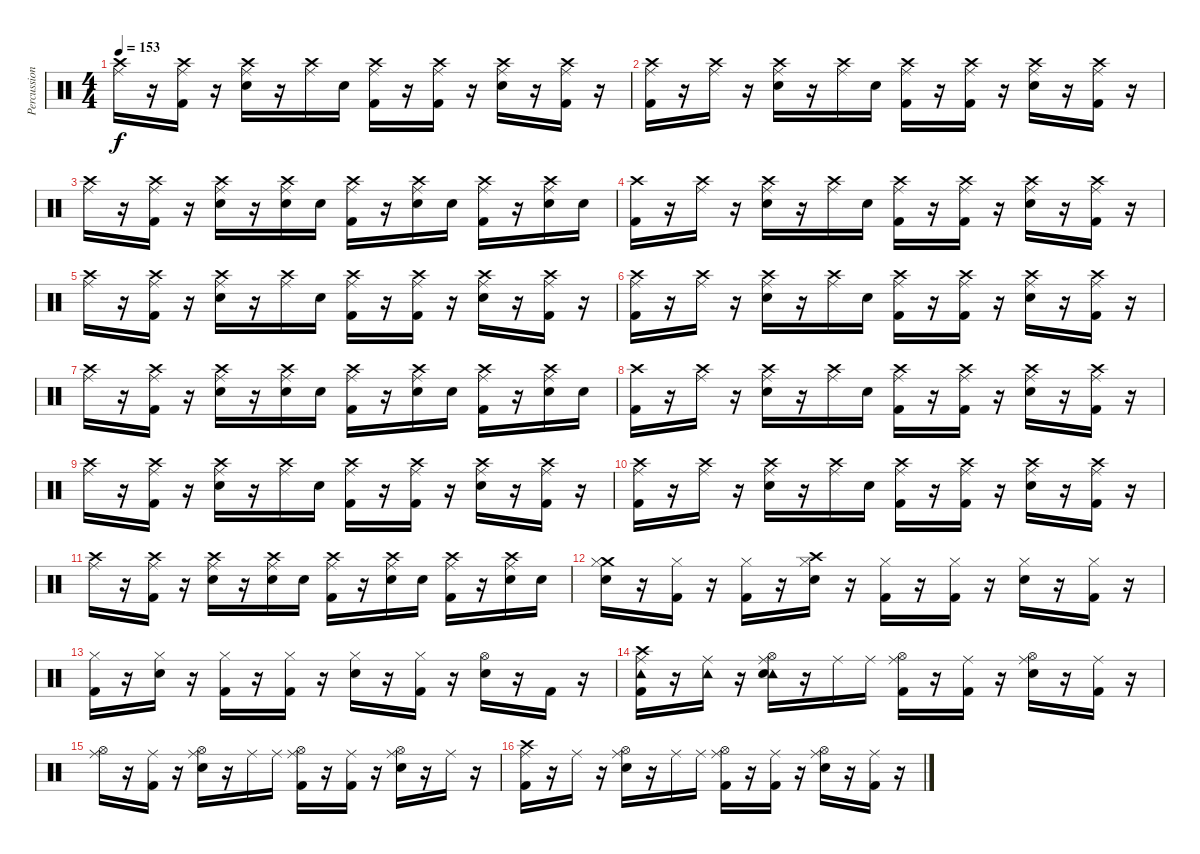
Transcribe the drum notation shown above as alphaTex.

\track ("Percussion" "Percussion") {instrument percussion}
\staff {score}
\articulation defaults
\ts (4 4)
\tempo 153
\clef neutral
\ks c
("Crash high (hit)" "Ride (middle)").16{dy f} r.16 ("Crash high (hit)" "Kick (hit) 2" "Ride (middle)").16 r.16 ("Crash high (hit)" "Electric Snare (hit)" "Ride (middle)").16 r.16 ("Crash high (hit)" "Ride (middle)").16 "Electric Snare (hit)".16 ("Kick (hit) 2" "Crash high (hit)" "Ride (middle)").16 r.16 ("Kick (hit) 2" "Crash high (hit)" "Ride (middle)").16 r.16 ("Electric Snare (hit)" "Crash high (hit)" "Ride (middle)").16 r.16 ("Crash high (hit)" "Kick (hit) 2" "Ride (middle)").16 r.16 |
("Kick (hit) 2" "Crash high (hit)" "Ride (middle)").16 r.16 ("Crash high (hit)" "Ride (middle)").16 r.16 ("Electric Snare (hit)" "Crash high (hit)" "Ride (middle)").16 r.16 ("Crash high (hit)" "Ride (middle)").16 "Electric Snare (hit)".16 ("Kick (hit) 2" "Crash high (hit)" "Ride (middle)").16 r.16 ("Kick (hit) 2" "Crash high (hit)" "Ride (middle)").16 r.16 ("Electric Snare (hit)" "Crash high (hit)" "Ride (middle)").16 r.16 ("Kick (hit) 2" "Crash high (hit)" "Ride (middle)").16 r.16 |
("Crash high (hit)" "Ride (middle)").16 r.16 ("Crash high (hit)" "Ride (middle)" "Kick (hit) 2").16 r.16 ("Crash high (hit)" "Ride (middle)" "Electric Snare (hit)").16 r.16 ("Crash high (hit)" "Electric Snare (hit)" "Ride (middle)").16 "Electric Snare (hit)".16 ("Crash high (hit)" "Kick (hit) 2" "Ride (middle)").16 r.16 ("Crash high (hit)" "Electric Snare (hit)" "Ride (middle)").16 "Electric Snare (hit)".16 ("Crash high (hit)" "Kick (hit) 2" "Ride (middle)").16 r.16 ("Crash high (hit)" "Electric Snare (hit)" "Ride (middle)").16 "Electric Snare (hit)".16 |
("Kick (hit) 2" "Crash high (hit)").16 r.16 ("Crash high (hit)" "Ride (middle)").16 r.16 ("Electric Snare (hit)" "Crash high (hit)" "Ride (middle)").16 r.16 ("Crash high (hit)" "Ride (middle)").16 "Electric Snare (hit)".16 ("Kick (hit) 2" "Crash high (hit)" "Ride (middle)").16 r.16 ("Kick (hit) 2" "Crash high (hit)" "Ride (middle)").16 r.16 ("Electric Snare (hit)" "Crash high (hit)" "Ride (middle)").16 r.16 ("Kick (hit) 2" "Crash high (hit)" "Ride (middle)").16 r.16 |
("Crash high (hit)" "Ride (middle)").16 r.16 ("Crash high (hit)" "Kick (hit) 2" "Ride (middle)").16 r.16 ("Crash high (hit)" "Electric Snare (hit)" "Ride (middle)").16 r.16 ("Crash high (hit)" "Ride (middle)").16 "Electric Snare (hit)".16 ("Kick (hit) 2" "Crash high (hit)" "Ride (middle)").16 r.16 ("Kick (hit) 2" "Crash high (hit)" "Ride (middle)").16 r.16 ("Electric Snare (hit)" "Crash high (hit)" "Ride (middle)").16 r.16 ("Crash high (hit)" "Kick (hit) 2" "Ride (middle)").16 r.16 |
("Kick (hit) 2" "Crash high (hit)" "Ride (middle)").16 r.16 ("Crash high (hit)" "Ride (middle)").16 r.16 ("Electric Snare (hit)" "Crash high (hit)" "Ride (middle)").16 r.16 ("Crash high (hit)" "Ride (middle)").16 "Electric Snare (hit)".16 ("Kick (hit) 2" "Crash high (hit)" "Ride (middle)").16 r.16 ("Kick (hit) 2" "Crash high (hit)" "Ride (middle)").16 r.16 ("Electric Snare (hit)" "Crash high (hit)" "Ride (middle)").16 r.16 ("Kick (hit) 2" "Crash high (hit)" "Ride (middle)").16 r.16 |
("Crash high (hit)" "Ride (middle)").16 r.16 ("Crash high (hit)" "Ride (middle)" "Kick (hit) 2").16 r.16 ("Crash high (hit)" "Ride (middle)" "Electric Snare (hit)").16 r.16 ("Crash high (hit)" "Electric Snare (hit)" "Ride (middle)").16 "Electric Snare (hit)".16 ("Crash high (hit)" "Kick (hit) 2" "Ride (middle)").16 r.16 ("Crash high (hit)" "Electric Snare (hit)" "Ride (middle)").16 "Electric Snare (hit)".16 ("Crash high (hit)" "Kick (hit) 2" "Ride (middle)").16 r.16 ("Crash high (hit)" "Electric Snare (hit)" "Ride (middle)").16 "Electric Snare (hit)".16 |
("Kick (hit) 2" "Crash high (hit)").16 r.16 ("Crash high (hit)" "Ride (middle)").16 r.16 ("Electric Snare (hit)" "Crash high (hit)" "Ride (middle)").16 r.16 ("Crash high (hit)" "Ride (middle)").16 "Electric Snare (hit)".16 ("Kick (hit) 2" "Crash high (hit)" "Ride (middle)").16 r.16 ("Kick (hit) 2" "Crash high (hit)" "Ride (middle)").16 r.16 ("Electric Snare (hit)" "Crash high (hit)" "Ride (middle)").16 r.16 ("Kick (hit) 2" "Crash high (hit)" "Ride (middle)").16 r.16 |
("Crash high (hit)" "Ride (middle)").16 r.16 ("Crash high (hit)" "Kick (hit) 2" "Ride (middle)").16 r.16 ("Crash high (hit)" "Electric Snare (hit)" "Ride (middle)").16 r.16 ("Crash high (hit)" "Ride (middle)").16 "Electric Snare (hit)".16 ("Kick (hit) 2" "Crash high (hit)" "Ride (middle)").16 r.16 ("Kick (hit) 2" "Crash high (hit)" "Ride (middle)").16 r.16 ("Electric Snare (hit)" "Crash high (hit)" "Ride (middle)").16 r.16 ("Crash high (hit)" "Kick (hit) 2" "Ride (middle)").16 r.16 |
("Kick (hit) 2" "Crash high (hit)" "Ride (middle)").16 r.16 ("Crash high (hit)" "Ride (middle)").16 r.16 ("Electric Snare (hit)" "Crash high (hit)" "Ride (middle)").16 r.16 ("Crash high (hit)" "Ride (middle)").16 "Electric Snare (hit)".16 ("Kick (hit) 2" "Crash high (hit)" "Ride (middle)").16 r.16 ("Kick (hit) 2" "Crash high (hit)" "Ride (middle)").16 r.16 ("Electric Snare (hit)" "Crash high (hit)" "Ride (middle)").16 r.16 ("Kick (hit) 2" "Crash high (hit)" "Ride (middle)").16 r.16 |
("Crash high (hit)" "Ride (middle)").16 r.16 ("Crash high (hit)" "Ride (middle)" "Kick (hit) 2").16 r.16 ("Crash high (hit)" "Ride (middle)" "Electric Snare (hit)").16 r.16 ("Crash high (hit)" "Electric Snare (hit)" "Ride (middle)").16 "Electric Snare (hit)".16 ("Crash high (hit)" "Kick (hit) 2" "Ride (middle)").16 r.16 ("Crash high (hit)" "Electric Snare (hit)" "Ride (middle)").16 "Electric Snare (hit)".16 ("Crash high (hit)" "Kick (hit) 2" "Ride (middle)").16 r.16 ("Crash high (hit)" "Electric Snare (hit)" "Ride (middle)").16 "Electric Snare (hit)".16 |
("Electric Snare (hit)" "Crash medium (hit)" "Hi-Hat (closed)").16 r.16 ("Kick (hit) 2" "Hi-Hat (closed)").16 r.16 ("Kick (hit) 2" "Hi-Hat (closed)").16 r.16 ("Electric Snare (hit)" "Crash high (hit)" "Hi-Hat (closed)").16 r.16 ("Kick (hit) 2" "Hi-Hat (closed)").16 r.16 ("Kick (hit) 2" "Hi-Hat (closed)").16 r.16 ("Electric Snare (hit)" "Hi-Hat (closed)").16 r.16 ("Kick (hit) 2" "Hi-Hat (closed)").16 r.16 |
("Kick (hit) 2" "Hi-Hat (closed)").16 r.16 ("Electric Snare (hit)" "Hi-Hat (closed)").16 r.16 ("Kick (hit) 2" "Hi-Hat (closed)").16 r.16 ("Kick (hit) 2" "Hi-Hat (closed)").16 r.16 ("Electric Snare (hit)" "Hi-Hat (closed)").16 r.16 ("Kick (hit) 2" "Hi-Hat (closed)").16 r.16 ("Electric Snare (hit)" "Hi-Hat (open)").16 r.16 "Kick (hit) 2".16 r.16 |
("Crash high (hit)" "Tambourine (hit)" "Ride (middle)" "Kick (hit) 2").16 r.16 ("Tambourine (hit)" "Ride (middle)").16 r.16 ("Tambourine (hit)" "Hi-Hat (open)" "Ride (middle)" "Electric Snare (hit)").16 r.16 "Ride (middle)".16 "Ride (middle)".16 ("Hi-Hat (open)" "Ride (middle)" "Kick (hit) 2").16 r.16 ("Ride (middle)" "Kick (hit) 2").16 r.16 ("Hi-Hat (open)" "Ride (middle)" "Electric Snare (hit)").16 r.16 ("Ride (middle)" "Kick (hit) 2").16 r.16 |
("Hi-Hat (open)" "Ride (middle)").16 r.16 ("Ride (middle)" "Kick (hit) 2").16 r.16 ("Hi-Hat (open)" "Ride (middle)" "Electric Snare (hit)").16 r.16 "Ride (middle)".16 "Ride (middle)".16 ("Hi-Hat (open)" "Ride (middle)" "Kick (hit) 2").16 r.16 ("Ride (middle)" "Kick (hit) 2").16 r.16 ("Hi-Hat (open)" "Ride (middle)" "Electric Snare (hit)").16 r.16 "Ride (middle)".16 r.16 |
("Crash high (hit)" "Ride (middle)" "Kick (hit) 2").16 r.16 "Ride (middle)".16 r.16 ("Hi-Hat (open)" "Ride (middle)" "Electric Snare (hit)").16 r.16 "Ride (middle)".16 "Ride (middle)".16 ("Hi-Hat (open)" "Ride (middle)" "Kick (hit) 2").16 r.16 ("Ride (middle)" "Kick (hit) 2").16 r.16 ("Hi-Hat (open)" "Ride (middle)" "Electric Snare (hit)").16 r.16 ("Ride (middle)" "Kick (hit) 2").16 r.16
